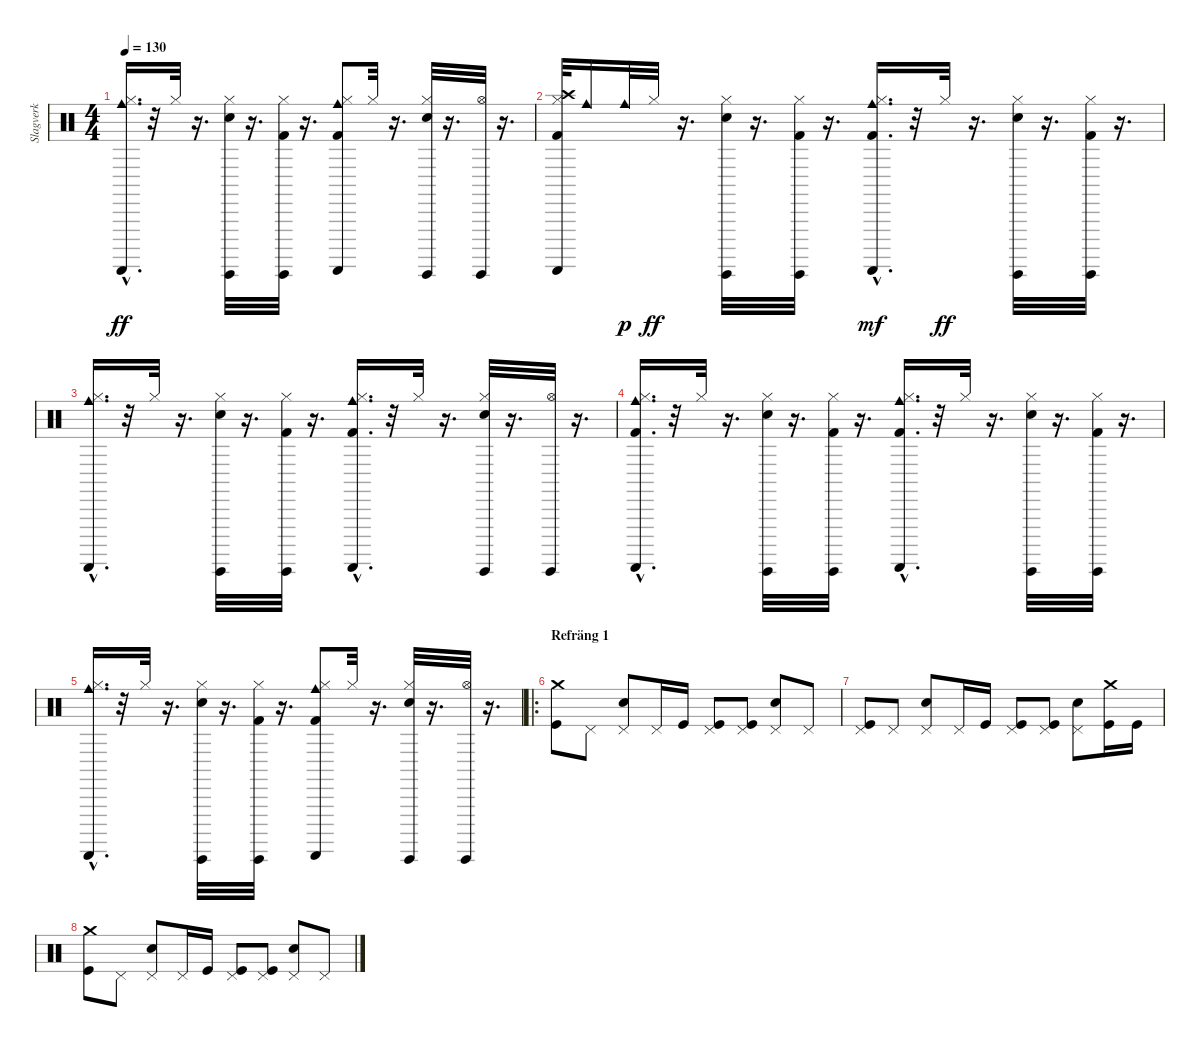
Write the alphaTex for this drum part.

\track ("Slagverk" "Slagverk") {instrument percussion}
\staff {score}
\articulation defaults
\ts (4 4)
\tempo 130
\clef neutral
\ks c
("Guiro (scrap-return)" "Hi-Hat (closed)" "Cowbell medium (hit)"{hac}).16{d dy ff} r.32 "Hi-Hat (closed)".32 r.16{d} ("Guiro (hit)" "Snare (hit) 2" "Hi-Hat (closed)").32 r.16{d} ("Hi-Hat (closed)" "Kick (hit) 2" "Guiro (hit)").32 r.16{d} ("Cowbell medium (hit)" "Guiro (scrap-return)" "Kick (hit) 2" "Hi-Hat (closed)").8 "Hi-Hat (closed)".32 r.16{d} ("Guiro (hit)" "Snare (hit) 2" "Hi-Hat (closed)").32 r.16{d} ("Hi-Hat (open)" "Guiro (hit)").32 r.16{d} |
("Kick (hit) 2" "Hi-Hat (closed)" "Crash high (hit)" "Guiro (scrap-return)").32 "Cowbell medium (hit)".16 "Cowbell medium (hit)".32{dy p} "Hi-Hat (closed)".32{dy ff} r.16{d} ("Guiro (hit)" "Snare (hit) 2" "Hi-Hat (closed)").32 r.16{d} ("Hi-Hat (closed)" "Kick (hit) 2" "Guiro (hit)").32 r.16{d} ("Guiro (scrap-return)" "Kick (hit) 2" "Hi-Hat (closed)" "Cowbell medium (hit)"{hac}).16{d dy mf} r.32 "Hi-Hat (closed)".32{dy ff} r.16{d} ("Hi-Hat (closed)" "Guiro (hit)" "Snare (hit) 2").32 r.16{d} ("Kick (hit) 2" "Guiro (hit)" "Hi-Hat (closed)").32 r.16{d} |
("Cowbell medium (hit)"{hac} "Guiro (scrap-return)" "Hi-Hat (closed)").16{d} r.32 "Hi-Hat (closed)".32 r.16{d} ("Guiro (hit)" "Snare (hit) 2" "Hi-Hat (closed)").32 r.16{d} ("Hi-Hat (closed)" "Kick (hit) 2" "Guiro (hit)").32 r.16{d} ("Guiro (scrap-return)" "Kick (hit) 2" "Hi-Hat (closed)" "Cowbell medium (hit)"{hac}).16{d} r.32 "Hi-Hat (closed)".32 r.16{d} ("Guiro (hit)" "Snare (hit) 2" "Hi-Hat (closed)").32 r.16{d} ("Hi-Hat (open)" "Guiro (hit)").32 r.16{d} |
("Guiro (scrap-return)" "Kick (hit) 2" "Hi-Hat (closed)" "Cowbell medium (hit)"{hac}).16{d} r.32 "Hi-Hat (closed)".32 r.16{d} ("Guiro (hit)" "Snare (hit) 2" "Hi-Hat (closed)").32 r.16{d} ("Hi-Hat (closed)" "Kick (hit) 2" "Guiro (hit)").32 r.16{d} ("Guiro (scrap-return)" "Kick (hit) 2" "Hi-Hat (closed)" "Cowbell medium (hit)"{hac}).16{d} r.32 "Hi-Hat (closed)".32 r.16{d} ("Guiro (hit)" "Snare (hit) 2" "Hi-Hat (closed)").32 r.16{d} ("Guiro (hit)" "Hi-Hat (closed)" "Kick (hit) 2").32 r.16{d} |
("Guiro (scrap-return)" "Hi-Hat (closed)" "Cowbell medium (hit)"{hac}).16{d} r.32 "Hi-Hat (closed)".32 r.16{d} ("Guiro (hit)" "Snare (hit) 2" "Hi-Hat (closed)").32 r.16{d} ("Hi-Hat (closed)" "Kick (hit) 2" "Guiro (hit)").32 r.16{d} ("Cowbell medium (hit)" "Guiro (scrap-return)" "Kick (hit) 2" "Hi-Hat (closed)").8 "Hi-Hat (closed)".32 r.16{d} ("Guiro (hit)" "Snare (hit) 2" "Hi-Hat (closed)").32 r.16{d} ("Hi-Hat (open)" "Guiro (hit)").32 r.16{d} |
\ro
\section ("" "Refräng 1")
("Kick (hit)" "Crash medium (hit)").8 "Pedal Hi-Hat (hit)".8 ("Electric Snare (hit)" "Pedal Hi-Hat (hit)").8 "Pedal Hi-Hat (hit)".16 "Kick (hit)".16 ("Kick (hit)" "Pedal Hi-Hat (hit)").8 ("Kick (hit)" "Pedal Hi-Hat (hit)").8 ("Electric Snare (hit)" "Pedal Hi-Hat (hit)").8 "Pedal Hi-Hat (hit)".8 |
("Kick (hit)" "Pedal Hi-Hat (hit)").8 "Pedal Hi-Hat (hit)".8 ("Electric Snare (hit)" "Pedal Hi-Hat (hit)").8 "Pedal Hi-Hat (hit)".16 "Kick (hit)".16 ("Kick (hit)" "Pedal Hi-Hat (hit)").8 ("Kick (hit)" "Pedal Hi-Hat (hit)").8 ("Electric Snare (hit)" "Pedal Hi-Hat (hit)").8 ("Kick (hit)" "Crash medium (hit)").16 "Kick (hit)".16 |
("Kick (hit)" "Crash medium (hit)").8 "Pedal Hi-Hat (hit)".8 ("Electric Snare (hit)" "Pedal Hi-Hat (hit)").8 "Pedal Hi-Hat (hit)".16 "Kick (hit)".16 ("Kick (hit)" "Pedal Hi-Hat (hit)").8 ("Kick (hit)" "Pedal Hi-Hat (hit)").8 ("Electric Snare (hit)" "Pedal Hi-Hat (hit)").8 "Pedal Hi-Hat (hit)".8
